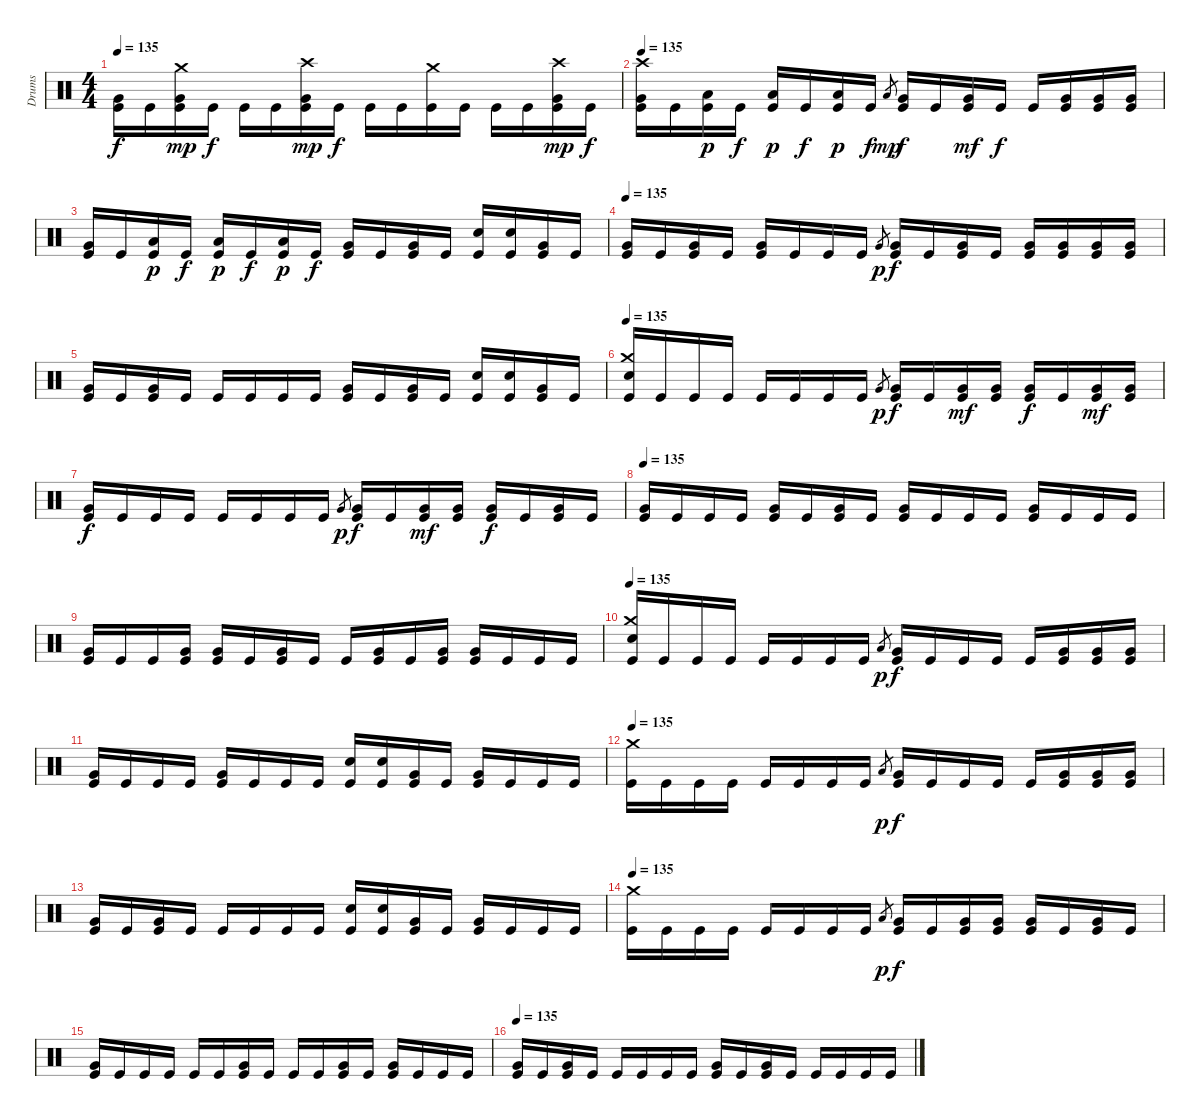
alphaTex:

\track ("Drums" "Drums") {instrument percussion}
\staff {score}
\articulation defaults
\ts (4 4)
\tempo 135
\clef neutral
\ks c
("Kick (hit)" "Very Low Tom (hit)").16{dy f} "Kick (hit)".16 ("Kick (hit)" "Very Low Tom (hit)" "Crash medium (hit)").16{dy mp} "Kick (hit)".16{dy f} "Kick (hit)".16 "Kick (hit)".16 ("Kick (hit)" "Very Low Tom (hit)" "Crash high (hit)").16{dy mp} "Kick (hit)".16{dy f} "Kick (hit)".16 "Kick (hit)".16 ("Kick (hit)" "Crash medium (hit)").16 "Kick (hit)".16 "Kick (hit)".16 "Kick (hit)".16 ("Kick (hit)" "Very Low Tom (hit)" "Crash high (hit)").16{dy mp} "Kick (hit)".16{dy f} |
\tempo 135
("Kick (hit)" "Very Low Tom (hit)" "Crash high (hit)").16 "Kick (hit)".16 ("Kick (hit)" "Low Floor Tom (hit)").16{dy p} "Kick (hit)".16{dy f} ("Kick (hit)" "Low Floor Tom (hit)").16{dy p} "Kick (hit)".16{dy f} ("Kick (hit)" "Low Floor Tom (hit)").16{dy p} "Kick (hit)".16{dy f} "Low Tom (hit)".8{gr dy mp} ("Kick (hit)" "Very Low Tom (hit)").16{dy f} "Kick (hit)".16 ("Kick (hit)" "Very Low Tom (hit)").16{dy mf} "Kick (hit)".16{dy f} "Kick (hit)".16 ("Kick (hit)" "Very Low Tom (hit)").16 ("Kick (hit)" "Very Low Tom (hit)").16 ("Kick (hit)" "Very Low Tom (hit)").16 |
("Kick (hit)" "Very Low Tom (hit)").16 "Kick (hit)".16 ("Kick (hit)" "Low Floor Tom (hit)").16{dy p} "Kick (hit)".16{dy f} ("Kick (hit)" "Low Floor Tom (hit)").16{dy p} "Kick (hit)".16{dy f} ("Kick (hit)" "Low Floor Tom (hit)").16{dy p} "Kick (hit)".16{dy f} ("Kick (hit)" "Very Low Tom (hit)").16 "Kick (hit)".16 ("Kick (hit)" "Very Low Tom (hit)").16 "Kick (hit)".16 ("Kick (hit)" "Electric Snare (hit)").16 ("Kick (hit)" "Electric Snare (hit)").16 ("Kick (hit)" "Very Low Tom (hit)").16 "Kick (hit)".16 |
\tempo 135
("Kick (hit)" "Very Low Tom (hit)").16 "Kick (hit)".16 ("Kick (hit)" "Very Low Tom (hit)").16 "Kick (hit)".16 ("Kick (hit)" "Very Low Tom (hit)").16 "Kick (hit)".16 "Kick (hit)".16 "Kick (hit)".16 "Very Low Tom (hit)".8{gr dy p} ("Kick (hit)" "Very Low Tom (hit)").16{dy f} "Kick (hit)".16 ("Kick (hit)" "Very Low Tom (hit)").16 "Kick (hit)".16 ("Kick (hit)" "Very Low Tom (hit)").16 ("Kick (hit)" "Very Low Tom (hit)").16 ("Kick (hit)" "Very Low Tom (hit)").16 ("Kick (hit)" "Very Low Tom (hit)").16 |
("Kick (hit)" "Very Low Tom (hit)").16 "Kick (hit)".16 ("Kick (hit)" "Very Low Tom (hit)").16 "Kick (hit)".16 "Kick (hit)".16 "Kick (hit)".16 "Kick (hit)".16 "Kick (hit)".16 ("Kick (hit)" "Very Low Tom (hit)").16 "Kick (hit)".16 ("Kick (hit)" "Very Low Tom (hit)").16 "Kick (hit)".16 ("Kick (hit)" "Electric Snare (hit)").16 ("Kick (hit)" "Electric Snare (hit)").16 ("Kick (hit)" "Very Low Tom (hit)").16 "Kick (hit)".16 |
\tempo 135
("Kick (hit)" "Electric Snare (hit)" "Crash medium (hit)").16 "Kick (hit)".16 "Kick (hit)".16 "Kick (hit)".16 "Kick (hit)".16 "Kick (hit)".16 "Kick (hit)".16 "Kick (hit)".16 "Very Low Tom (hit)".8{gr dy p} ("Kick (hit)" "Very Low Tom (hit)").16{dy f} "Kick (hit)".16 ("Kick (hit)" "Very Low Tom (hit)").16{dy mf} ("Kick (hit)" "Very Low Tom (hit)").16 ("Kick (hit)" "Very Low Tom (hit)").16{dy f} "Kick (hit)".16 ("Kick (hit)" "Very Low Tom (hit)").16{dy mf} ("Kick (hit)" "Very Low Tom (hit)").16 |
("Kick (hit)" "Very Low Tom (hit)").16{dy f} "Kick (hit)".16 "Kick (hit)".16 "Kick (hit)".16 "Kick (hit)".16 "Kick (hit)".16 "Kick (hit)".16 "Kick (hit)".16 "Very Low Tom (hit)".8{gr dy p} ("Kick (hit)" "Very Low Tom (hit)").16{dy f} "Kick (hit)".16 ("Kick (hit)" "Very Low Tom (hit)").16{dy mf} ("Kick (hit)" "Very Low Tom (hit)").16 ("Kick (hit)" "Very Low Tom (hit)").16{dy f} "Kick (hit)".16 ("Kick (hit)" "Very Low Tom (hit)").16 "Kick (hit)".16 |
\tempo 135
("Kick (hit)" "Very Low Tom (hit)").16 "Kick (hit)".16 "Kick (hit)".16 "Kick (hit)".16 ("Kick (hit)" "Very Low Tom (hit)").16 "Kick (hit)".16 ("Kick (hit)" "Very Low Tom (hit)").16 "Kick (hit)".16 ("Kick (hit)" "Very Low Tom (hit)").16 "Kick (hit)".16 "Kick (hit)".16 "Kick (hit)".16 ("Kick (hit)" "Very Low Tom (hit)").16 "Kick (hit)".16 "Kick (hit)".16 "Kick (hit)".16 |
("Kick (hit)" "Very Low Tom (hit)").16 "Kick (hit)".16 "Kick (hit)".16 ("Kick (hit)" "Very Low Tom (hit)").16 ("Kick (hit)" "Very Low Tom (hit)").16 "Kick (hit)".16 ("Kick (hit)" "Very Low Tom (hit)").16 "Kick (hit)".16 "Kick (hit)".16 ("Kick (hit)" "Very Low Tom (hit)").16 "Kick (hit)".16 ("Kick (hit)" "Very Low Tom (hit)").16 ("Kick (hit)" "Very Low Tom (hit)").16 "Kick (hit)".16 "Kick (hit)".16 "Kick (hit)".16 |
\tempo 135
("Kick (hit)" "Electric Snare (hit)" "Crash medium (hit)").16 "Kick (hit)".16 "Kick (hit)".16 "Kick (hit)".16 "Kick (hit)".16 "Kick (hit)".16 "Kick (hit)".16 "Kick (hit)".16 "Low Tom (hit)".8{gr dy p} ("Kick (hit)" "Very Low Tom (hit)").16{dy f} "Kick (hit)".16 "Kick (hit)".16 "Kick (hit)".16 "Kick (hit)".16 ("Kick (hit)" "Very Low Tom (hit)").16 ("Kick (hit)" "Very Low Tom (hit)").16 ("Kick (hit)" "Very Low Tom (hit)").16 |
("Kick (hit)" "Very Low Tom (hit)").16 "Kick (hit)".16 "Kick (hit)".16 "Kick (hit)".16 ("Kick (hit)" "Very Low Tom (hit)").16 "Kick (hit)".16 "Kick (hit)".16 "Kick (hit)".16 ("Kick (hit)" "Electric Snare (hit)").16 ("Kick (hit)" "Electric Snare (hit)").16 ("Kick (hit)" "Very Low Tom (hit)").16 "Kick (hit)".16 ("Kick (hit)" "Very Low Tom (hit)").16 "Kick (hit)".16 "Kick (hit)".16 "Kick (hit)".16 |
\tempo 135
("Kick (hit)" "Crash medium (hit)").16 "Kick (hit)".16 "Kick (hit)".16 "Kick (hit)".16 "Kick (hit)".16 "Kick (hit)".16 "Kick (hit)".16 "Kick (hit)".16 "Low Tom (hit)".8{gr dy p} ("Kick (hit)" "Very Low Tom (hit)").16{dy f} "Kick (hit)".16 "Kick (hit)".16 "Kick (hit)".16 "Kick (hit)".16 ("Kick (hit)" "Very Low Tom (hit)").16 ("Kick (hit)" "Very Low Tom (hit)").16 ("Kick (hit)" "Very Low Tom (hit)").16 |
("Kick (hit)" "Very Low Tom (hit)").16 "Kick (hit)".16 ("Kick (hit)" "Very Low Tom (hit)").16 "Kick (hit)".16 "Kick (hit)".16 "Kick (hit)".16 "Kick (hit)".16 "Kick (hit)".16 ("Kick (hit)" "Electric Snare (hit)").16 ("Kick (hit)" "Electric Snare (hit)").16 ("Kick (hit)" "Very Low Tom (hit)").16 "Kick (hit)".16 ("Kick (hit)" "Very Low Tom (hit)").16 "Kick (hit)".16 "Kick (hit)".16 "Kick (hit)".16 |
\tempo 135
("Kick (hit)" "Crash medium (hit)").16 "Kick (hit)".16 "Kick (hit)".16 "Kick (hit)".16 "Kick (hit)".16 "Kick (hit)".16 "Kick (hit)".16 "Kick (hit)".16 "Low Tom (hit)".8{gr dy p} ("Kick (hit)" "Very Low Tom (hit)").16{dy f} "Kick (hit)".16 ("Kick (hit)" "Very Low Tom (hit)").16 ("Kick (hit)" "Very Low Tom (hit)").16 ("Kick (hit)" "Very Low Tom (hit)").16 "Kick (hit)".16 ("Kick (hit)" "Very Low Tom (hit)").16 "Kick (hit)".16 |
("Kick (hit)" "Very Low Tom (hit)").16 "Kick (hit)".16 "Kick (hit)".16 "Kick (hit)".16 "Kick (hit)".16 "Kick (hit)".16 ("Kick (hit)" "Very Low Tom (hit)").16 "Kick (hit)".16 "Kick (hit)".16 "Kick (hit)".16 ("Kick (hit)" "Very Low Tom (hit)").16 "Kick (hit)".16 ("Kick (hit)" "Very Low Tom (hit)").16 "Kick (hit)".16 "Kick (hit)".16 "Kick (hit)".16 |
\tempo 135
("Kick (hit)" "Very Low Tom (hit)").16 "Kick (hit)".16 ("Kick (hit)" "Very Low Tom (hit)").16 "Kick (hit)".16 "Kick (hit)".16 "Kick (hit)".16 "Kick (hit)".16 "Kick (hit)".16 ("Kick (hit)" "Very Low Tom (hit)").16 "Kick (hit)".16 ("Kick (hit)" "Very Low Tom (hit)").16 "Kick (hit)".16 "Kick (hit)".16 "Kick (hit)".16 "Kick (hit)".16 "Kick (hit)".16
